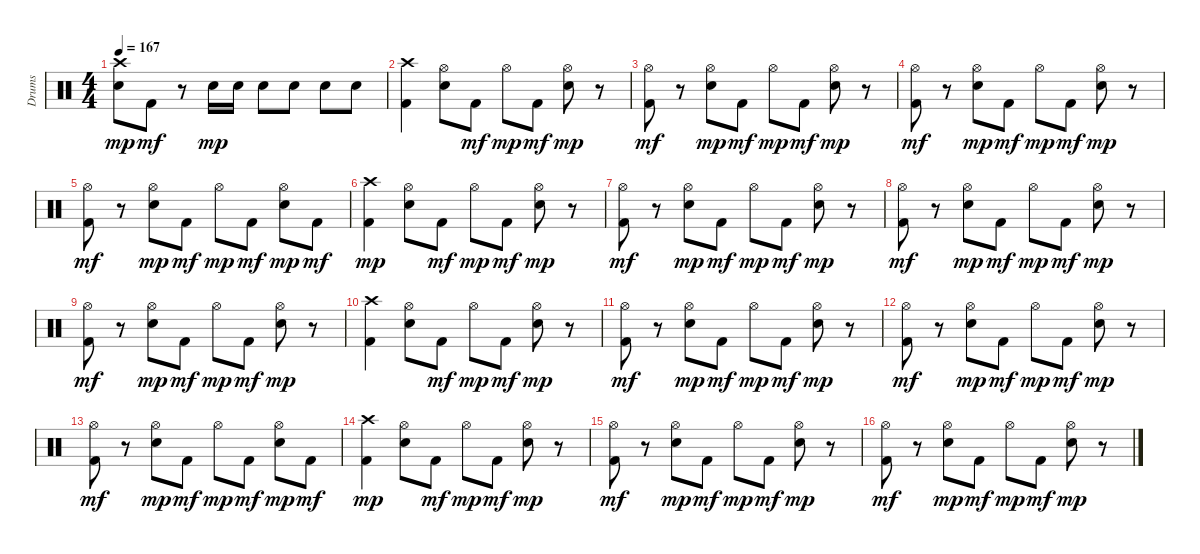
\track ("Drums" "Drums") {instrument percussion}
\staff {score}
\articulation defaults
\ts (4 4)
\tempo 167
\clef neutral
\ks c
("Crash high (hit)" "Electric Snare (hit)").8{dy mp} "Kick (hit) 2".8{dy mf} r.8 "Electric Snare (hit)".16{dy mp} "Electric Snare (hit)".16 "Electric Snare (hit)".8 "Electric Snare (hit)".8 "Electric Snare (hit)".8 "Electric Snare (hit)".8 |
("Kick (hit) 2" "Crash high (hit)").4 ("Electric Snare (hit)" "Hi-Hat (open)").8 "Kick (hit) 2".8{dy mf} "Hi-Hat (open)".8{dy mp} "Kick (hit) 2".8{dy mf} ("Electric Snare (hit)" "Hi-Hat (open)").8{dy mp} r.8 |
("Hi-Hat (open)" "Kick (hit) 2").8{dy mf} r.8 ("Electric Snare (hit)" "Hi-Hat (open)").8{dy mp} "Kick (hit) 2".8{dy mf} "Hi-Hat (open)".8{dy mp} "Kick (hit) 2".8{dy mf} ("Electric Snare (hit)" "Hi-Hat (open)").8{dy mp} r.8 |
("Hi-Hat (open)" "Kick (hit) 2").8{dy mf} r.8 ("Electric Snare (hit)" "Hi-Hat (open)").8{dy mp} "Kick (hit) 2".8{dy mf} "Hi-Hat (open)".8{dy mp} "Kick (hit) 2".8{dy mf} ("Electric Snare (hit)" "Hi-Hat (open)").8{dy mp} r.8 |
("Hi-Hat (open)" "Kick (hit) 2").8{dy mf} r.8 ("Electric Snare (hit)" "Hi-Hat (open)").8{dy mp} "Kick (hit) 2".8{dy mf} "Hi-Hat (open)".8{dy mp} "Kick (hit) 2".8{dy mf} ("Electric Snare (hit)" "Hi-Hat (open)").8{dy mp} "Kick (hit) 2".8{dy mf} |
("Kick (hit) 2" "Crash high (hit)").4{dy mp} ("Electric Snare (hit)" "Hi-Hat (open)").8 "Kick (hit) 2".8{dy mf} "Hi-Hat (open)".8{dy mp} "Kick (hit) 2".8{dy mf} ("Electric Snare (hit)" "Hi-Hat (open)").8{dy mp} r.8 |
("Hi-Hat (open)" "Kick (hit) 2").8{dy mf} r.8 ("Electric Snare (hit)" "Hi-Hat (open)").8{dy mp} "Kick (hit) 2".8{dy mf} "Hi-Hat (open)".8{dy mp} "Kick (hit) 2".8{dy mf} ("Electric Snare (hit)" "Hi-Hat (open)").8{dy mp} r.8 |
("Hi-Hat (open)" "Kick (hit) 2").8{dy mf} r.8 ("Electric Snare (hit)" "Hi-Hat (open)").8{dy mp} "Kick (hit) 2".8{dy mf} "Hi-Hat (open)".8{dy mp} "Kick (hit) 2".8{dy mf} ("Electric Snare (hit)" "Hi-Hat (open)").8{dy mp} r.8 |
("Hi-Hat (open)" "Kick (hit) 2").8{dy mf} r.8 ("Electric Snare (hit)" "Hi-Hat (open)").8{dy mp} "Kick (hit) 2".8{dy mf} "Hi-Hat (open)".8{dy mp} "Kick (hit) 2".8{dy mf} ("Electric Snare (hit)" "Hi-Hat (open)").8{dy mp} r.8 |
("Kick (hit) 2" "Crash high (hit)").4 ("Electric Snare (hit)" "Hi-Hat (open)").8 "Kick (hit) 2".8{dy mf} "Hi-Hat (open)".8{dy mp} "Kick (hit) 2".8{dy mf} ("Electric Snare (hit)" "Hi-Hat (open)").8{dy mp} r.8 |
("Hi-Hat (open)" "Kick (hit) 2").8{dy mf} r.8 ("Electric Snare (hit)" "Hi-Hat (open)").8{dy mp} "Kick (hit) 2".8{dy mf} "Hi-Hat (open)".8{dy mp} "Kick (hit) 2".8{dy mf} ("Electric Snare (hit)" "Hi-Hat (open)").8{dy mp} r.8 |
("Hi-Hat (open)" "Kick (hit) 2").8{dy mf} r.8 ("Electric Snare (hit)" "Hi-Hat (open)").8{dy mp} "Kick (hit) 2".8{dy mf} "Hi-Hat (open)".8{dy mp} "Kick (hit) 2".8{dy mf} ("Electric Snare (hit)" "Hi-Hat (open)").8{dy mp} r.8 |
("Hi-Hat (open)" "Kick (hit) 2").8{dy mf} r.8 ("Electric Snare (hit)" "Hi-Hat (open)").8{dy mp} "Kick (hit) 2".8{dy mf} "Hi-Hat (open)".8{dy mp} "Kick (hit) 2".8{dy mf} ("Electric Snare (hit)" "Hi-Hat (open)").8{dy mp} "Kick (hit) 2".8{dy mf} |
("Kick (hit) 2" "Crash high (hit)").4{dy mp} ("Electric Snare (hit)" "Hi-Hat (open)").8 "Kick (hit) 2".8{dy mf} "Hi-Hat (open)".8{dy mp} "Kick (hit) 2".8{dy mf} ("Electric Snare (hit)" "Hi-Hat (open)").8{dy mp} r.8 |
("Hi-Hat (open)" "Kick (hit) 2").8{dy mf} r.8 ("Electric Snare (hit)" "Hi-Hat (open)").8{dy mp} "Kick (hit) 2".8{dy mf} "Hi-Hat (open)".8{dy mp} "Kick (hit) 2".8{dy mf} ("Electric Snare (hit)" "Hi-Hat (open)").8{dy mp} r.8 |
("Hi-Hat (open)" "Kick (hit) 2").8{dy mf} r.8 ("Electric Snare (hit)" "Hi-Hat (open)").8{dy mp} "Kick (hit) 2".8{dy mf} "Hi-Hat (open)".8{dy mp} "Kick (hit) 2".8{dy mf} ("Electric Snare (hit)" "Hi-Hat (open)").8{dy mp} r.8
